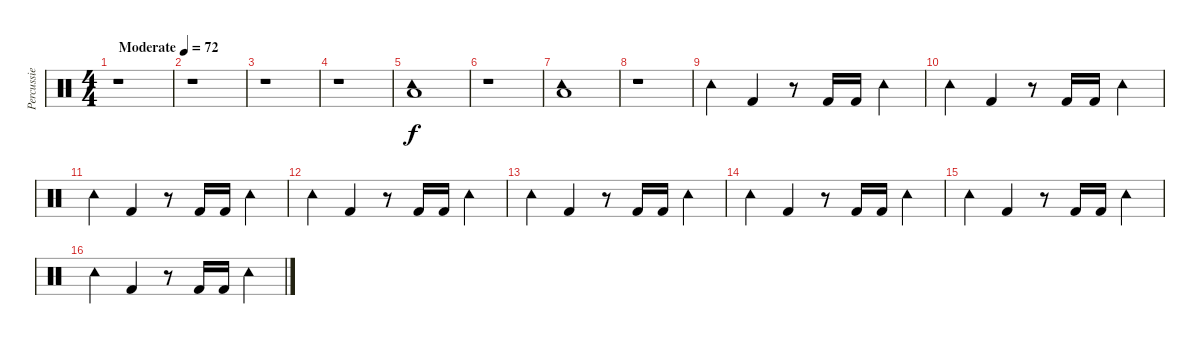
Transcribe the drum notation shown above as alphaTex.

\track ("Percussie" "Percussie") {instrument percussion}
\staff {score}
\articulation defaults
\ts (4 4)
\tempo (72 "Moderate")
\clef neutral
\ks c
r.1{dy f} |
r.1 |
r.1 |
r.1 |
("Tambourine (hit)" "Low Floor Tom (hit)").1 |
r.1 |
("Tambourine (hit)" "Low Floor Tom (hit)").1 |
r.1 |
"Tambourine (hit)".4 "Kick (hit) 2".4 r.8 "Kick (hit) 2".16 "Kick (hit) 2".16 "Tambourine (hit)".4 |
"Tambourine (hit)".4 "Kick (hit) 2".4 r.8 "Kick (hit) 2".16 "Kick (hit) 2".16 "Tambourine (hit)".4 |
"Tambourine (hit)".4 "Kick (hit) 2".4 r.8 "Kick (hit) 2".16 "Kick (hit) 2".16 "Tambourine (hit)".4 |
"Tambourine (hit)".4 "Kick (hit) 2".4 r.8 "Kick (hit) 2".16 "Kick (hit) 2".16 "Tambourine (hit)".4 |
"Tambourine (hit)".4 "Kick (hit) 2".4 r.8 "Kick (hit) 2".16 "Kick (hit) 2".16 "Tambourine (hit)".4 |
"Tambourine (hit)".4 "Kick (hit) 2".4 r.8 "Kick (hit) 2".16 "Kick (hit) 2".16 "Tambourine (hit)".4 |
"Tambourine (hit)".4 "Kick (hit) 2".4 r.8 "Kick (hit) 2".16 "Kick (hit) 2".16 "Tambourine (hit)".4 |
"Tambourine (hit)".4 "Kick (hit) 2".4 r.8 "Kick (hit) 2".16 "Kick (hit) 2".16 "Tambourine (hit)".4
